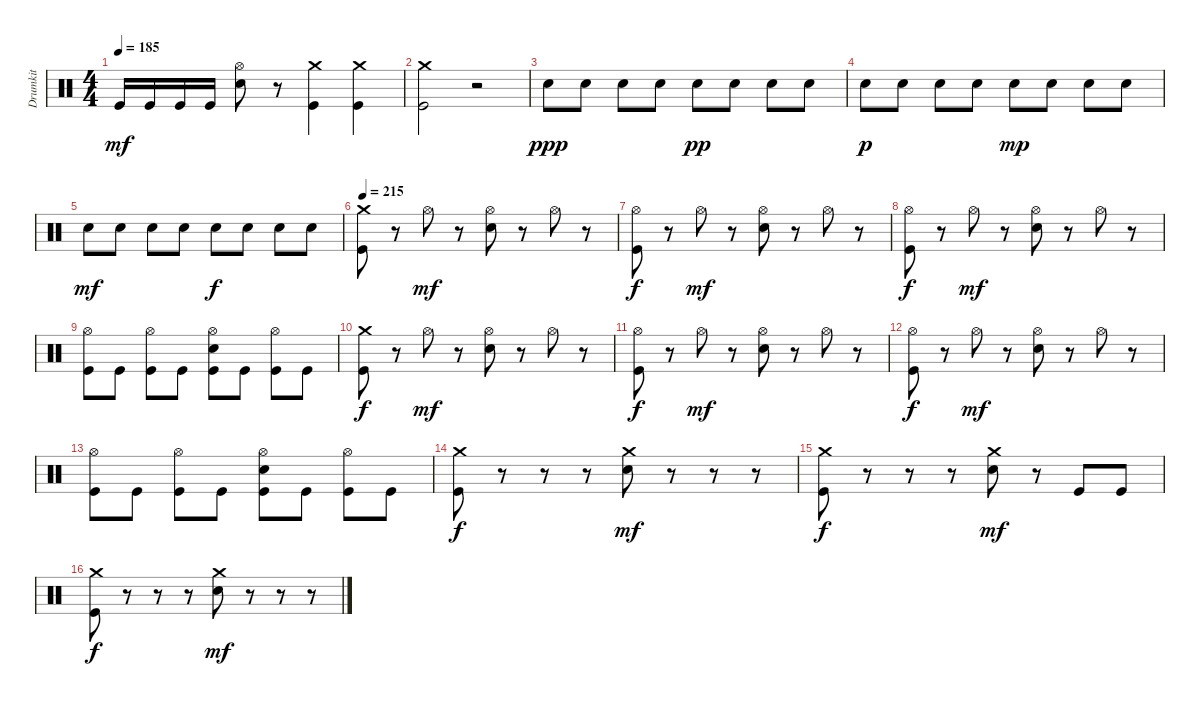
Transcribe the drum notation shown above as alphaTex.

\track ("Drumkit" "Drumkit") {instrument percussion}
\staff {score}
\articulation defaults
\ts (4 4)
\tempo 185
\clef neutral
\ks c "Kick (hit)".16{dy mf} "Kick (hit)".16 "Kick (hit)".16 "Kick (hit)".16
("Snare (hit) 2" "Hi-Hat (open)").8 r.8 ("Kick (hit)" "Crash medium (hit)").4 ("Kick (hit)" "Crash medium (hit)").4 |
("Kick (hit)" "Crash medium (hit)").2 r.2 |
"Snare (hit) 2".8{dy ppp} "Snare (hit) 2".8 "Snare (hit) 2".8 "Snare (hit) 2".8 "Snare (hit) 2".8{dy pp} "Snare (hit) 2".8 "Snare (hit) 2".8 "Snare (hit) 2".8 |
"Snare (hit) 2".8{dy p} "Snare (hit) 2".8 "Snare (hit) 2".8 "Snare (hit) 2".8 "Snare (hit) 2".8{dy mp} "Snare (hit) 2".8 "Snare (hit) 2".8 "Snare (hit) 2".8 |
"Snare (hit) 2".8{dy mf} "Snare (hit) 2".8 "Snare (hit) 2".8 "Snare (hit) 2".8 "Snare (hit) 2".8{dy f} "Snare (hit) 2".8 "Snare (hit) 2".8 "Snare (hit) 2".8 |
\tempo 215
("Kick (hit)" "Crash medium (hit)").8 r.8 "Hi-Hat (open)".8{dy mf} r.8 ("Snare (hit) 2" "Hi-Hat (open)").8 r.8 "Hi-Hat (open)".8 r.8 |
("Kick (hit)" "Hi-Hat (open)").8{dy f} r.8 "Hi-Hat (open)".8{dy mf} r.8 ("Snare (hit) 2" "Hi-Hat (open)").8 r.8 "Hi-Hat (open)".8 r.8 |
("Kick (hit)" "Hi-Hat (open)").8{dy f} r.8 "Hi-Hat (open)".8{dy mf} r.8 ("Snare (hit) 2" "Hi-Hat (open)").8 r.8 "Hi-Hat (open)".8 r.8 |
("Kick (hit)" "Hi-Hat (open)").8 "Kick (hit)".8 ("Kick (hit)" "Hi-Hat (open)").8 "Kick (hit)".8 ("Kick (hit)" "Snare (hit) 2" "Hi-Hat (open)").8 "Kick (hit)".8 ("Kick (hit)" "Hi-Hat (open)").8 "Kick (hit)".8 |
("Kick (hit)" "Crash medium (hit)").8{dy f} r.8 "Hi-Hat (open)".8{dy mf} r.8 ("Snare (hit) 2" "Hi-Hat (open)").8 r.8 "Hi-Hat (open)".8 r.8 |
("Kick (hit)" "Hi-Hat (open)").8{dy f} r.8 "Hi-Hat (open)".8{dy mf} r.8 ("Snare (hit) 2" "Hi-Hat (open)").8 r.8 "Hi-Hat (open)".8 r.8 |
("Kick (hit)" "Hi-Hat (open)").8{dy f} r.8 "Hi-Hat (open)".8{dy mf} r.8 ("Snare (hit) 2" "Hi-Hat (open)").8 r.8 "Hi-Hat (open)".8 r.8 |
("Kick (hit)" "Hi-Hat (open)").8 "Kick (hit)".8 ("Kick (hit)" "Hi-Hat (open)").8 "Kick (hit)".8 ("Kick (hit)" "Snare (hit) 2" "Hi-Hat (open)").8 "Kick (hit)".8 ("Kick (hit)" "Hi-Hat (open)").8 "Kick (hit)".8 |
("Kick (hit)" "Crash medium (hit)").8{dy f} r.8 r.8 r.8 ("Snare (hit) 2" "Crash medium (hit)").8{dy mf} r.8 r.8 r.8 |
("Kick (hit)" "Crash medium (hit)").8{dy f} r.8 r.8 r.8 ("Snare (hit) 2" "Crash medium (hit)").8{dy mf} r.8 "Kick (hit)".8 "Kick (hit)".8 |
("Kick (hit)" "Crash medium (hit)").8{dy f} r.8 r.8 r.8 ("Snare (hit) 2" "Crash medium (hit)").8{dy mf} r.8 r.8 r.8
